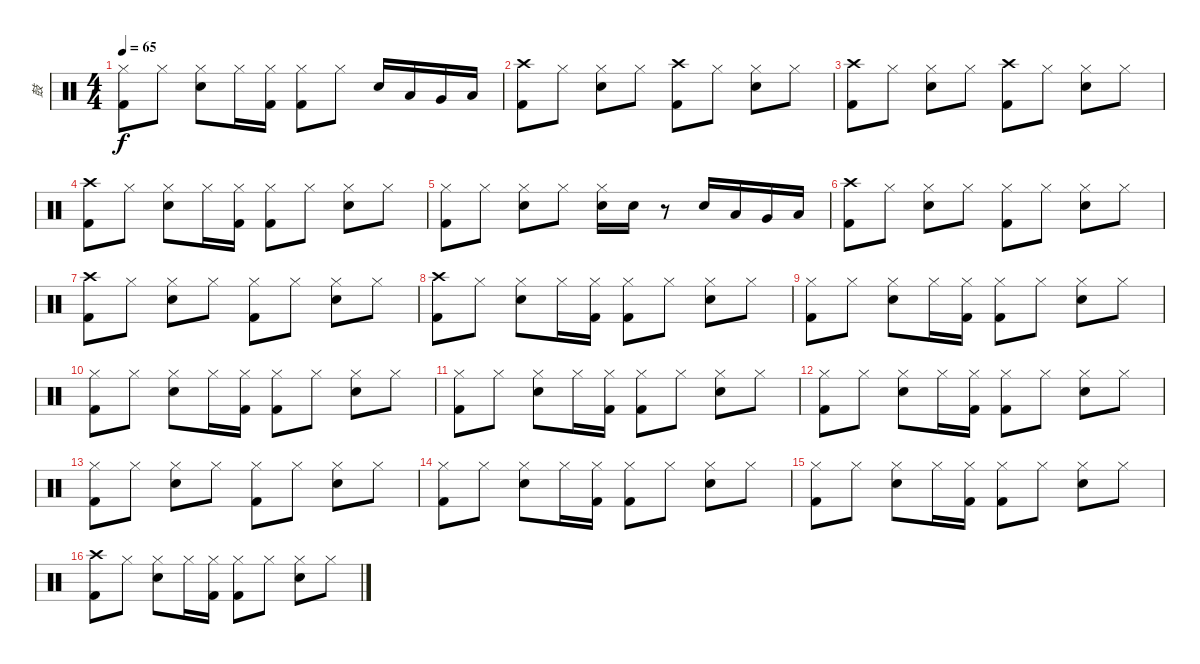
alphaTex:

\track ("鼓" "鼓") {instrument percussion}
\staff {score}
\articulation defaults
\ts (4 4)
\tempo 65
\clef neutral
\ks c
("Kick (hit) 2" "Hi-Hat (closed)").8{dy f} "Hi-Hat (closed)".8 ("Snare (hit) 2" "Hi-Hat (closed)").8 "Hi-Hat (closed)".16 ("Kick (hit) 2" "Hi-Hat (closed)").16 ("Kick (hit) 2" "Hi-Hat (closed)").8 "Hi-Hat (closed)".8 "Snare (hit) 2".16 "Low Floor Tom (hit)".16 "Very Low Tom (hit)".16 "Low Tom (hit)".16 |
("Kick (hit) 2" "Crash high (hit)").8 "Hi-Hat (closed)".8 ("Snare (hit) 2" "Hi-Hat (closed)").8 "Hi-Hat (closed)".8 ("Kick (hit) 2" "Crash high (hit)").8 "Hi-Hat (closed)".8 ("Snare (hit) 2" "Hi-Hat (closed)").8 "Hi-Hat (closed)".8 |
("Kick (hit) 2" "Crash high (hit)").8 "Hi-Hat (closed)".8 ("Snare (hit) 2" "Hi-Hat (closed)").8 "Hi-Hat (closed)".8 ("Kick (hit) 2" "Crash high (hit)").8 "Hi-Hat (closed)".8 ("Snare (hit) 2" "Hi-Hat (closed)").8 "Hi-Hat (closed)".8 |
("Kick (hit) 2" "Crash high (hit)").8 "Hi-Hat (closed)".8 ("Snare (hit) 2" "Hi-Hat (closed)").8 "Hi-Hat (closed)".16 ("Kick (hit) 2" "Hi-Hat (closed)").16 ("Kick (hit) 2" "Hi-Hat (closed)").8 "Hi-Hat (closed)".8 ("Snare (hit) 2" "Hi-Hat (closed)").8 "Hi-Hat (closed)".8 |
("Kick (hit) 2" "Hi-Hat (closed)").8 "Hi-Hat (closed)".8 ("Snare (hit) 2" "Hi-Hat (closed)").8 "Hi-Hat (closed)".8 ("Snare (hit) 2" "Hi-Hat (closed)").16 "Snare (hit) 2".16 r.8 "Snare (hit) 2".16 "Low Floor Tom (hit)".16 "Very Low Tom (hit)".16 "Low Tom (hit)".16 |
("Kick (hit) 2" "Crash high (hit)").8 "Hi-Hat (closed)".8 ("Snare (hit) 2" "Hi-Hat (closed)").8 "Hi-Hat (closed)".8 ("Kick (hit) 2" "Hi-Hat (closed)").8 "Hi-Hat (closed)".8 ("Snare (hit) 2" "Hi-Hat (closed)").8 "Hi-Hat (closed)".8 |
("Kick (hit) 2" "Crash high (hit)").8 "Hi-Hat (closed)".8 ("Snare (hit) 2" "Hi-Hat (closed)").8 "Hi-Hat (closed)".8 ("Kick (hit) 2" "Hi-Hat (closed)").8 "Hi-Hat (closed)".8 ("Snare (hit) 2" "Hi-Hat (closed)").8 "Hi-Hat (closed)".8 |
("Kick (hit) 2" "Crash high (hit)").8 "Hi-Hat (closed)".8 ("Snare (hit) 2" "Hi-Hat (closed)").8 "Hi-Hat (closed)".16 ("Kick (hit) 2" "Hi-Hat (closed)").16 ("Kick (hit) 2" "Hi-Hat (closed)").8 "Hi-Hat (closed)".8 ("Snare (hit) 2" "Hi-Hat (closed)").8 "Hi-Hat (closed)".8 |
("Kick (hit) 2" "Hi-Hat (closed)").8 "Hi-Hat (closed)".8 ("Snare (hit) 2" "Hi-Hat (closed)").8 "Hi-Hat (closed)".16 ("Kick (hit) 2" "Hi-Hat (closed)").16 ("Kick (hit) 2" "Hi-Hat (closed)").8 "Hi-Hat (closed)".8 ("Snare (hit) 2" "Hi-Hat (closed)").8 "Hi-Hat (closed)".8 |
("Kick (hit) 2" "Hi-Hat (closed)").8 "Hi-Hat (closed)".8 ("Snare (hit) 2" "Hi-Hat (closed)").8 "Hi-Hat (closed)".16 ("Kick (hit) 2" "Hi-Hat (closed)").16 ("Kick (hit) 2" "Hi-Hat (closed)").8 "Hi-Hat (closed)".8 ("Snare (hit) 2" "Hi-Hat (closed)").8 "Hi-Hat (closed)".8 |
("Kick (hit) 2" "Hi-Hat (closed)").8 "Hi-Hat (closed)".8 ("Snare (hit) 2" "Hi-Hat (closed)").8 "Hi-Hat (closed)".16 ("Kick (hit) 2" "Hi-Hat (closed)").16 ("Kick (hit) 2" "Hi-Hat (closed)").8 "Hi-Hat (closed)".8 ("Snare (hit) 2" "Hi-Hat (closed)").8 "Hi-Hat (closed)".8 |
("Kick (hit) 2" "Hi-Hat (closed)").8 "Hi-Hat (closed)".8 ("Snare (hit) 2" "Hi-Hat (closed)").8 "Hi-Hat (closed)".16 ("Kick (hit) 2" "Hi-Hat (closed)").16 ("Kick (hit) 2" "Hi-Hat (closed)").8 "Hi-Hat (closed)".8 ("Snare (hit) 2" "Hi-Hat (closed)").8 "Hi-Hat (closed)".8 |
("Kick (hit) 2" "Hi-Hat (closed)").8 "Hi-Hat (closed)".8 ("Snare (hit) 2" "Hi-Hat (closed)").8 "Hi-Hat (closed)".8 ("Kick (hit) 2" "Hi-Hat (closed)").8 "Hi-Hat (closed)".8 ("Snare (hit) 2" "Hi-Hat (closed)").8 "Hi-Hat (closed)".8 |
("Kick (hit) 2" "Hi-Hat (closed)").8 "Hi-Hat (closed)".8 ("Snare (hit) 2" "Hi-Hat (closed)").8 "Hi-Hat (closed)".16 ("Kick (hit) 2" "Hi-Hat (closed)").16 ("Kick (hit) 2" "Hi-Hat (closed)").8 "Hi-Hat (closed)".8 ("Snare (hit) 2" "Hi-Hat (closed)").8 "Hi-Hat (closed)".8 |
("Kick (hit) 2" "Hi-Hat (closed)").8 "Hi-Hat (closed)".8 ("Snare (hit) 2" "Hi-Hat (closed)").8 "Hi-Hat (closed)".16 ("Kick (hit) 2" "Hi-Hat (closed)").16 ("Kick (hit) 2" "Hi-Hat (closed)").8 "Hi-Hat (closed)".8 ("Snare (hit) 2" "Hi-Hat (closed)").8 "Hi-Hat (closed)".8 |
("Kick (hit) 2" "Crash high (hit)").8 "Hi-Hat (closed)".8 ("Snare (hit) 2" "Hi-Hat (closed)").8 "Hi-Hat (closed)".16 ("Kick (hit) 2" "Hi-Hat (closed)").16 ("Kick (hit) 2" "Hi-Hat (closed)").8 "Hi-Hat (closed)".8 ("Snare (hit) 2" "Hi-Hat (closed)").8 "Hi-Hat (closed)".8
